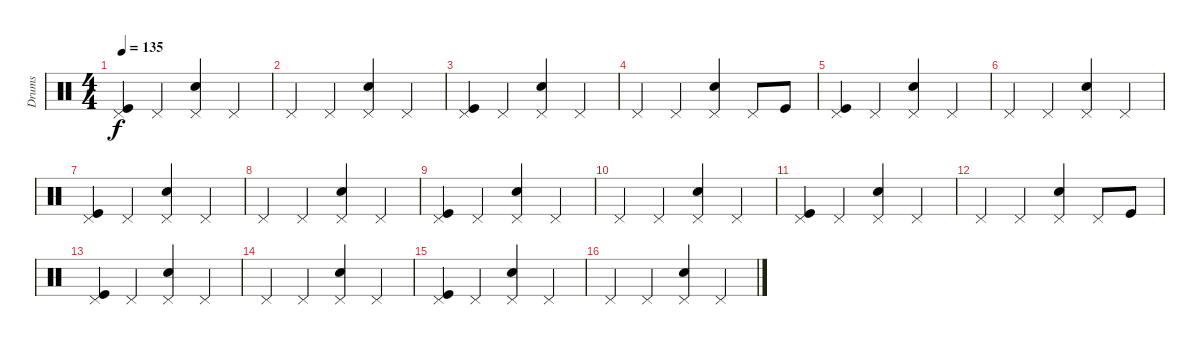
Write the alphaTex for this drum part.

\track ("Drums" "Drums") {instrument percussion}
\staff {score}
\articulation defaults
\ts (4 4)
\tempo 135
\clef neutral
\ks c
("Pedal Hi-Hat (hit)" "Kick (hit)").4{dy f} "Pedal Hi-Hat (hit)".4 ("Pedal Hi-Hat (hit)" "Snare (hit) 2").4 "Pedal Hi-Hat (hit)".4 |
"Pedal Hi-Hat (hit)".4 "Pedal Hi-Hat (hit)".4 ("Pedal Hi-Hat (hit)" "Snare (hit) 2").4 "Pedal Hi-Hat (hit)".4 |
("Pedal Hi-Hat (hit)" "Kick (hit)").4 "Pedal Hi-Hat (hit)".4 ("Pedal Hi-Hat (hit)" "Snare (hit) 2").4 "Pedal Hi-Hat (hit)".4 |
"Pedal Hi-Hat (hit)".4 "Pedal Hi-Hat (hit)".4 ("Pedal Hi-Hat (hit)" "Snare (hit) 2").4 "Pedal Hi-Hat (hit)".8 "Kick (hit)".8 |
("Pedal Hi-Hat (hit)" "Kick (hit)").4 "Pedal Hi-Hat (hit)".4 ("Pedal Hi-Hat (hit)" "Snare (hit) 2").4 "Pedal Hi-Hat (hit)".4 |
"Pedal Hi-Hat (hit)".4 "Pedal Hi-Hat (hit)".4 ("Pedal Hi-Hat (hit)" "Snare (hit) 2").4 "Pedal Hi-Hat (hit)".4 |
("Pedal Hi-Hat (hit)" "Kick (hit)").4 "Pedal Hi-Hat (hit)".4 ("Pedal Hi-Hat (hit)" "Snare (hit) 2").4 "Pedal Hi-Hat (hit)".4 |
"Pedal Hi-Hat (hit)".4 "Pedal Hi-Hat (hit)".4 ("Pedal Hi-Hat (hit)" "Snare (hit) 2").4 "Pedal Hi-Hat (hit)".4 |
("Pedal Hi-Hat (hit)" "Kick (hit)").4 "Pedal Hi-Hat (hit)".4 ("Pedal Hi-Hat (hit)" "Snare (hit) 2").4 "Pedal Hi-Hat (hit)".4 |
"Pedal Hi-Hat (hit)".4 "Pedal Hi-Hat (hit)".4 ("Pedal Hi-Hat (hit)" "Snare (hit) 2").4 "Pedal Hi-Hat (hit)".4 |
("Pedal Hi-Hat (hit)" "Kick (hit)").4 "Pedal Hi-Hat (hit)".4 ("Pedal Hi-Hat (hit)" "Snare (hit) 2").4 "Pedal Hi-Hat (hit)".4 |
"Pedal Hi-Hat (hit)".4 "Pedal Hi-Hat (hit)".4 ("Pedal Hi-Hat (hit)" "Snare (hit) 2").4 "Pedal Hi-Hat (hit)".8 "Kick (hit)".8 |
("Pedal Hi-Hat (hit)" "Kick (hit)").4 "Pedal Hi-Hat (hit)".4 ("Pedal Hi-Hat (hit)" "Snare (hit) 2").4 "Pedal Hi-Hat (hit)".4 |
"Pedal Hi-Hat (hit)".4 "Pedal Hi-Hat (hit)".4 ("Pedal Hi-Hat (hit)" "Snare (hit) 2").4 "Pedal Hi-Hat (hit)".4 |
("Pedal Hi-Hat (hit)" "Kick (hit)").4 "Pedal Hi-Hat (hit)".4 ("Pedal Hi-Hat (hit)" "Snare (hit) 2").4 "Pedal Hi-Hat (hit)".4 |
"Pedal Hi-Hat (hit)".4 "Pedal Hi-Hat (hit)".4 ("Pedal Hi-Hat (hit)" "Snare (hit) 2").4 "Pedal Hi-Hat (hit)".4
